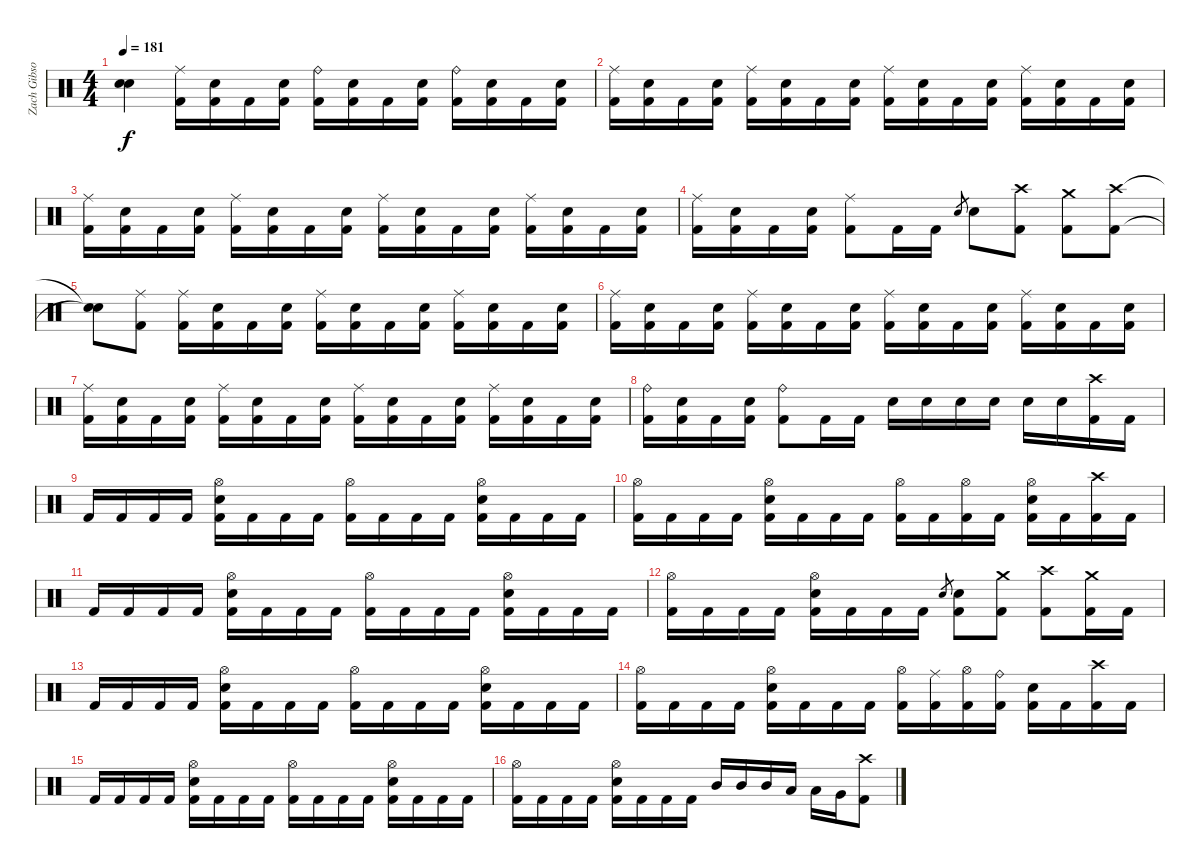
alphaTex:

\track ("Zach Gibson (Drums)" "Zach Gibso") {instrument percussion}
\staff {score}
\articulation defaults
\ts (4 4)
\tempo 181
\clef neutral
\ks c
("Snare (hit)"{t} "Snare (hit)"{t}).4{dy f} ("Ride (middle)" "Kick (hit) 2").16 ("Snare (hit) 2" "Kick (hit) 2").16 "Kick (hit) 2".16 ("Snare (hit) 2" "Kick (hit) 2").16 ("Ride (bell)" "Kick (hit) 2").16 ("Snare (hit) 2" "Kick (hit) 2").16 "Kick (hit) 2".16 ("Snare (hit) 2" "Kick (hit) 2").16 ("Ride (bell)" "Kick (hit) 2").16 ("Snare (hit) 2" "Kick (hit) 2").16 "Kick (hit) 2".16 ("Snare (hit) 2" "Kick (hit) 2").16 |
("Ride (middle)" "Kick (hit) 2").16 ("Snare (hit) 2" "Kick (hit) 2").16 "Kick (hit) 2".16 ("Snare (hit) 2" "Kick (hit) 2").16 ("Ride (middle)" "Kick (hit) 2").16 ("Snare (hit) 2" "Kick (hit) 2").16 "Kick (hit) 2".16 ("Snare (hit) 2" "Kick (hit) 2").16 ("Ride (middle)" "Kick (hit) 2").16 ("Snare (hit) 2" "Kick (hit) 2").16 "Kick (hit) 2".16 ("Snare (hit) 2" "Kick (hit) 2").16 ("Ride (middle)" "Kick (hit) 2").16 ("Snare (hit) 2" "Kick (hit) 2").16 "Kick (hit) 2".16 ("Snare (hit) 2" "Kick (hit) 2").16 |
("Ride (middle)" "Kick (hit) 2").16 ("Snare (hit) 2" "Kick (hit) 2").16 "Kick (hit) 2".16 ("Snare (hit) 2" "Kick (hit) 2").16 ("Ride (middle)" "Kick (hit) 2").16 ("Snare (hit) 2" "Kick (hit) 2").16 "Kick (hit) 2".16 ("Snare (hit) 2" "Kick (hit) 2").16 ("Ride (middle)" "Kick (hit) 2").16 ("Snare (hit) 2" "Kick (hit) 2").16 "Kick (hit) 2".16 ("Snare (hit) 2" "Kick (hit) 2").16 ("Ride (middle)" "Kick (hit) 2").16 ("Snare (hit) 2" "Kick (hit) 2").16 "Kick (hit) 2".16 ("Snare (hit) 2" "Kick (hit) 2").16 |
("Ride (middle)" "Kick (hit) 2").16 ("Snare (hit) 2" "Kick (hit) 2").16 "Kick (hit) 2".16 ("Snare (hit) 2" "Kick (hit) 2").16 ("Ride (middle)" "Kick (hit) 2").8 "Kick (hit) 2".16 "Kick (hit) 2".16 "Snare (hit) 2".8{gr} "Snare (hit) 2".8 ("Crash high (hit)" "Kick (hit) 2").8 ("Crash medium (hit)" "Kick (hit) 2").8 ("Crash high (hit)" "Kick (hit) 2").8 |
("Snare (hit)"{t} "Snare (hit)"{t}).8 ("Ride (middle)" "Kick (hit) 2").8 ("Ride (middle)" "Kick (hit) 2").16 ("Snare (hit) 2" "Kick (hit) 2").16 "Kick (hit) 2".16 ("Snare (hit) 2" "Kick (hit) 2").16 ("Ride (middle)" "Kick (hit) 2").16 ("Snare (hit) 2" "Kick (hit) 2").16 "Kick (hit) 2".16 ("Snare (hit) 2" "Kick (hit) 2").16 ("Ride (middle)" "Kick (hit) 2").16 ("Snare (hit) 2" "Kick (hit) 2").16 "Kick (hit) 2".16 ("Snare (hit) 2" "Kick (hit) 2").16 |
("Ride (middle)" "Kick (hit) 2").16 ("Snare (hit) 2" "Kick (hit) 2").16 "Kick (hit) 2".16 ("Snare (hit) 2" "Kick (hit) 2").16 ("Ride (middle)" "Kick (hit) 2").16 ("Snare (hit) 2" "Kick (hit) 2").16 "Kick (hit) 2".16 ("Snare (hit) 2" "Kick (hit) 2").16 ("Ride (middle)" "Kick (hit) 2").16 ("Snare (hit) 2" "Kick (hit) 2").16 "Kick (hit) 2".16 ("Snare (hit) 2" "Kick (hit) 2").16 ("Ride (middle)" "Kick (hit) 2").16 ("Snare (hit) 2" "Kick (hit) 2").16 "Kick (hit) 2".16 ("Snare (hit) 2" "Kick (hit) 2").16 |
("Ride (middle)" "Kick (hit) 2").16 ("Snare (hit) 2" "Kick (hit) 2").16 "Kick (hit) 2".16 ("Snare (hit) 2" "Kick (hit) 2").16 ("Ride (middle)" "Kick (hit) 2").16 ("Snare (hit) 2" "Kick (hit) 2").16 "Kick (hit) 2".16 ("Snare (hit) 2" "Kick (hit) 2").16 ("Ride (middle)" "Kick (hit) 2").16 ("Snare (hit) 2" "Kick (hit) 2").16 "Kick (hit) 2".16 ("Snare (hit) 2" "Kick (hit) 2").16 ("Ride (middle)" "Kick (hit) 2").16 ("Snare (hit) 2" "Kick (hit) 2").16 "Kick (hit) 2".16 ("Snare (hit) 2" "Kick (hit) 2").16 |
("Ride (bell)" "Kick (hit) 2").16 ("Snare (hit) 2" "Kick (hit) 2").16 "Kick (hit) 2".16 ("Snare (hit) 2" "Kick (hit) 2").16 ("Ride (bell)" "Kick (hit) 2").8 "Kick (hit) 2".16 "Kick (hit) 2".16 "Snare (hit) 2".16 "Snare (hit) 2".16 "Snare (hit) 2".16 "Snare (hit) 2".16 "Snare (hit) 2".16 "Snare (hit) 2".16 ("Crash high (hit)" "Kick (hit) 2").16 "Kick (hit) 2".16 |
"Kick (hit) 2".16 "Kick (hit) 2".16 "Kick (hit) 2".16 "Kick (hit) 2".16 ("Hi-Hat (open)" "Snare (hit) 2" "Kick (hit) 2").16 "Kick (hit) 2".16 "Kick (hit) 2".16 "Kick (hit) 2".16 ("Hi-Hat (open)" "Kick (hit) 2").16 "Kick (hit) 2".16 "Kick (hit) 2".16 "Kick (hit) 2".16 ("Hi-Hat (open)" "Snare (hit) 2" "Kick (hit) 2").16 "Kick (hit) 2".16 "Kick (hit) 2".16 "Kick (hit) 2".16 |
("Hi-Hat (open)" "Kick (hit) 2").16 "Kick (hit) 2".16 "Kick (hit) 2".16 "Kick (hit) 2".16 ("Hi-Hat (open)" "Snare (hit) 2" "Kick (hit) 2").16 "Kick (hit) 2".16 "Kick (hit) 2".16 "Kick (hit) 2".16 ("Hi-Hat (open)" "Kick (hit) 2").16 "Kick (hit) 2".16 ("Hi-Hat (open)" "Kick (hit) 2").16 "Kick (hit) 2".16 ("Hi-Hat (open)" "Snare (hit) 2" "Kick (hit) 2").16 "Kick (hit) 2".16 ("Crash high (hit)" "Kick (hit) 2").16 "Kick (hit) 2".16 |
"Kick (hit) 2".16 "Kick (hit) 2".16 "Kick (hit) 2".16 "Kick (hit) 2".16 ("Hi-Hat (open)" "Snare (hit) 2" "Kick (hit) 2").16 "Kick (hit) 2".16 "Kick (hit) 2".16 "Kick (hit) 2".16 ("Hi-Hat (open)" "Kick (hit) 2").16 "Kick (hit) 2".16 "Kick (hit) 2".16 "Kick (hit) 2".16 ("Hi-Hat (open)" "Snare (hit) 2" "Kick (hit) 2").16 "Kick (hit) 2".16 "Kick (hit) 2".16 "Kick (hit) 2".16 |
("Hi-Hat (open)" "Kick (hit) 2").16 "Kick (hit) 2".16 "Kick (hit) 2".16 "Kick (hit) 2".16 ("Hi-Hat (open)" "Snare (hit) 2" "Kick (hit) 2").16 "Kick (hit) 2".16 "Kick (hit) 2".16 "Kick (hit) 2".16 "Snare (hit) 2".8{gr} ("Snare (hit) 2" "Kick (hit) 2").8 ("Crash medium (hit)" "Kick (hit) 2").8 ("Crash high (hit)" "Kick (hit) 2").8 ("Crash medium (hit)" "Kick (hit) 2").16 "Kick (hit) 2".16 |
"Kick (hit) 2".16 "Kick (hit) 2".16 "Kick (hit) 2".16 "Kick (hit) 2".16 ("Hi-Hat (open)" "Snare (hit) 2" "Kick (hit) 2").16 "Kick (hit) 2".16 "Kick (hit) 2".16 "Kick (hit) 2".16 ("Hi-Hat (open)" "Kick (hit) 2").16 "Kick (hit) 2".16 "Kick (hit) 2".16 "Kick (hit) 2".16 ("Hi-Hat (open)" "Snare (hit) 2" "Kick (hit) 2").16 "Kick (hit) 2".16 "Kick (hit) 2".16 "Kick (hit) 2".16 |
("Hi-Hat (open)" "Kick (hit) 2").16 "Kick (hit) 2".16 "Kick (hit) 2".16 "Kick (hit) 2".16 ("Hi-Hat (open)" "Snare (hit) 2" "Kick (hit) 2").16 "Kick (hit) 2".16 "Kick (hit) 2".16 "Kick (hit) 2".16 ("Hi-Hat (open)" "Kick (hit) 2").16 ("Ride (middle)" "Kick (hit) 2").16 ("Hi-Hat (open)" "Kick (hit) 2").16 ("Ride (bell)" "Kick (hit) 2").16 ("Snare (hit) 2" "Kick (hit) 2").16 "Kick (hit) 2".16 ("Crash high (hit)" "Kick (hit) 2").16 "Kick (hit) 2".16 |
"Kick (hit) 2".16 "Kick (hit) 2".16 "Kick (hit) 2".16 "Kick (hit) 2".16 ("Hi-Hat (open)" "Snare (hit) 2" "Kick (hit) 2").16 "Kick (hit) 2".16 "Kick (hit) 2".16 "Kick (hit) 2".16 ("Hi-Hat (open)" "Kick (hit) 2").16 "Kick (hit) 2".16 "Kick (hit) 2".16 "Kick (hit) 2".16 ("Hi-Hat (open)" "Snare (hit) 2" "Kick (hit) 2").16 "Kick (hit) 2".16 "Kick (hit) 2".16 "Kick (hit) 2".16 |
("Hi-Hat (open)" "Kick (hit) 2").16 "Kick (hit) 2".16 "Kick (hit) 2".16 "Kick (hit) 2".16 ("Hi-Hat (open)" "Snare (hit) 2" "Kick (hit) 2").16 "Kick (hit) 2".16 "Kick (hit) 2".16 "Kick (hit) 2".16 "Mid Tom (hit)".16 "Mid Tom (hit)".16 "Mid Tom (hit)".16 "Low Tom (hit)".16 "Low Tom (hit)".16 "Very Low Tom (hit)".16 ("Crash high (hit)" "Kick (hit) 2").8
